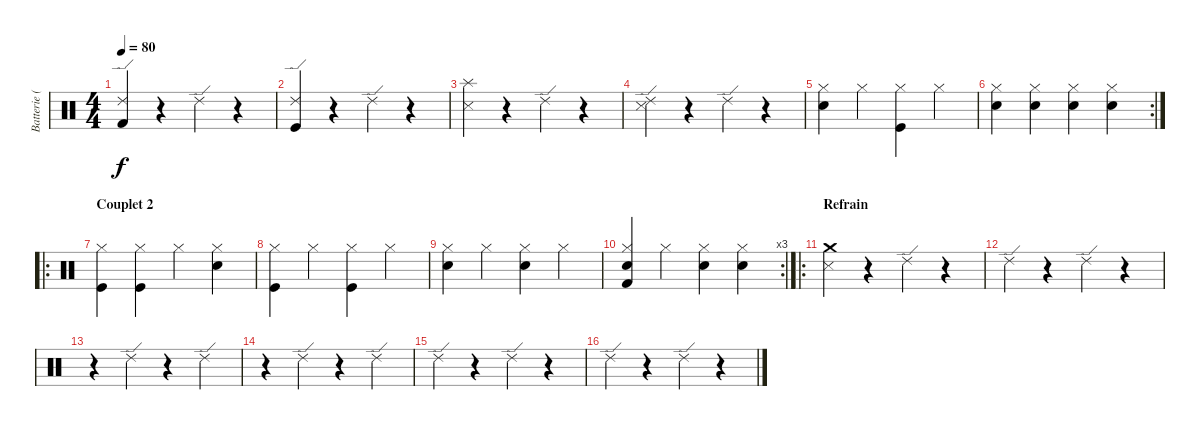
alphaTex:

\track ("Batterie (Batmo)" "Batterie (") {instrument percussion}
\staff {score}
\articulation defaults
\ts (4 4)
\tempo 80
\clef neutral
\ks c
("Ride (edge) 2" "Kick (hit) 2").4{dy f} r.4 "Ride (edge) 2".4 r.4 |
("Ride (edge) 2" "Kick (hit)").4 r.4 "Ride (edge) 2".4 r.4 |
("Splash (hit)" "Snare (side stick) 3").4 r.4 "Ride (edge) 2".4 r.4 |
("Ride (edge) 2" "Snare (side stick) 3").4 r.4 "Ride (edge) 2".4 r.4 |
("Hi-Hat (closed)" "Snare (hit) 2").4 "Hi-Hat (closed)".4 ("Hi-Hat (closed)" "Kick (hit)").4 "Hi-Hat (closed)".4 |
\rc 2
("Hi-Hat (closed)" "Snare (hit) 2").4 ("Hi-Hat (closed)" "Snare (hit) 2").4 ("Hi-Hat (closed)" "Snare (hit) 2").4 ("Hi-Hat (closed)" "Snare (hit) 2").4 |
\ro
\section ("" "Couplet 2")
("Hi-Hat (closed)" "Kick (hit)").4 ("Hi-Hat (closed)" "Kick (hit)").4 "Hi-Hat (closed)".4 ("Hi-Hat (closed)" "Snare (hit) 2").4 |
("Hi-Hat (closed)" "Kick (hit)").4 "Hi-Hat (closed)".4 ("Hi-Hat (closed)" "Kick (hit)").4 "Hi-Hat (closed)".4 |
("Hi-Hat (closed)" "Snare (hit) 2").4 "Hi-Hat (closed)".4 ("Hi-Hat (closed)" "Snare (hit) 2").4 "Hi-Hat (closed)".4 |
\rc 3
("Hi-Hat (closed)" "Snare (hit) 2" "Kick (hit) 2").4 "Hi-Hat (closed)".4 ("Hi-Hat (closed)" "Snare (hit) 2").4 ("Hi-Hat (closed)" "Snare (hit) 2").4 |
\ro
\section ("" "Refrain")
("Crash medium (hit)" "Snare (side stick) 3").4 r.4 "Ride (edge) 2".4 r.4 |
"Ride (edge) 2".4 r.4 "Ride (edge) 2".4 r.4 |
r.4 "Ride (edge) 2".4 r.4 "Ride (edge) 2".4 |
r.4 "Ride (edge) 2".4 r.4 "Ride (edge) 2".4 |
"Ride (edge) 2".4 r.4 "Ride (edge) 2".4 r.4 |
"Ride (edge) 2".4 r.4 "Ride (edge) 2".4 r.4
